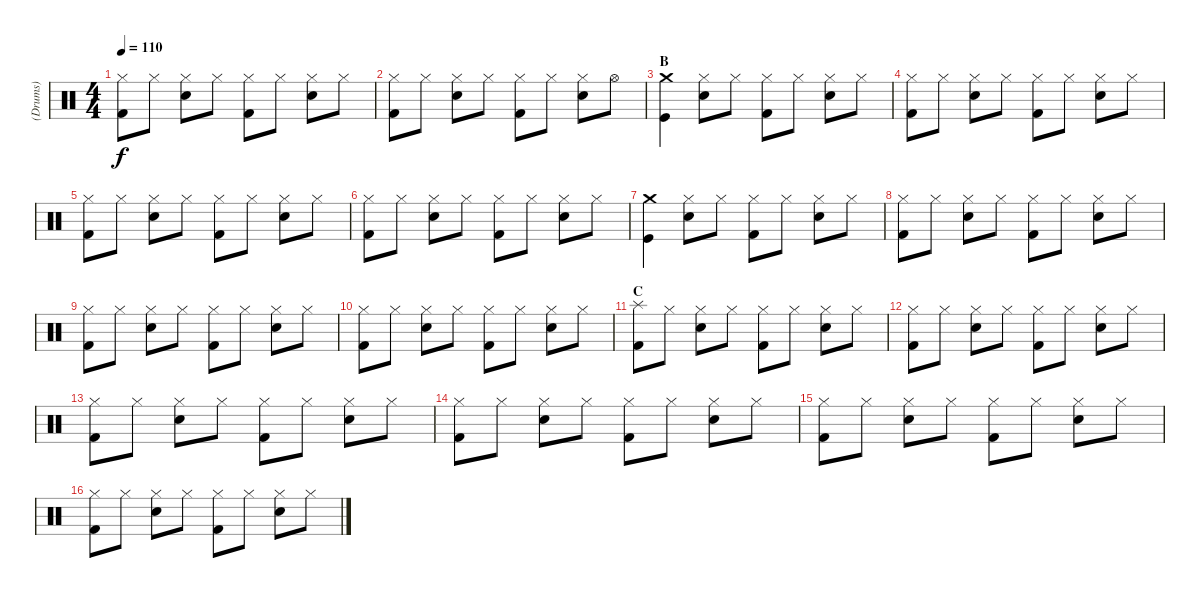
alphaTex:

\track ("(Drums)" "(Drums)") {instrument percussion}
\staff {score}
\articulation defaults
\ts (4 4)
\tempo 110
\clef neutral
\ks c
("Hi-Hat (closed)" "Kick (hit) 2").8{dy f} "Hi-Hat (closed)".8 ("Hi-Hat (closed)" "Electric Snare (hit)").8 "Hi-Hat (closed)".8 ("Hi-Hat (closed)" "Kick (hit) 2").8 "Hi-Hat (closed)".8 ("Hi-Hat (closed)" "Electric Snare (hit)").8 "Hi-Hat (closed)".8 |
("Hi-Hat (closed)" "Kick (hit) 2").8 "Hi-Hat (closed)".8 ("Hi-Hat (closed)" "Electric Snare (hit)").8 "Hi-Hat (closed)".8 ("Hi-Hat (closed)" "Kick (hit) 2").8 "Hi-Hat (closed)".8 ("Hi-Hat (closed)" "Electric Snare (hit)").8 "Hi-Hat (open)".8 |
\section ("" "B")
("Crash medium (hit)" "Kick (hit)").4 ("Hi-Hat (closed)" "Electric Snare (hit)").8 "Hi-Hat (closed)".8 ("Hi-Hat (closed)" "Kick (hit) 2").8 "Hi-Hat (closed)".8 ("Hi-Hat (closed)" "Electric Snare (hit)").8 "Hi-Hat (closed)".8 |
("Hi-Hat (closed)" "Kick (hit) 2").8 "Hi-Hat (closed)".8 ("Hi-Hat (closed)" "Electric Snare (hit)").8 "Hi-Hat (closed)".8 ("Hi-Hat (closed)" "Kick (hit) 2").8 "Hi-Hat (closed)".8 ("Hi-Hat (closed)" "Electric Snare (hit)").8 "Hi-Hat (closed)".8 |
("Hi-Hat (closed)" "Kick (hit) 2").8 "Hi-Hat (closed)".8 ("Hi-Hat (closed)" "Electric Snare (hit)").8 "Hi-Hat (closed)".8 ("Hi-Hat (closed)" "Kick (hit) 2").8 "Hi-Hat (closed)".8 ("Hi-Hat (closed)" "Electric Snare (hit)").8 "Hi-Hat (closed)".8 |
("Hi-Hat (closed)" "Kick (hit) 2").8 "Hi-Hat (closed)".8 ("Hi-Hat (closed)" "Electric Snare (hit)").8 "Hi-Hat (closed)".8 ("Hi-Hat (closed)" "Kick (hit) 2").8 "Hi-Hat (closed)".8 ("Hi-Hat (closed)" "Electric Snare (hit)").8 "Hi-Hat (closed)".8 |
("Crash medium (hit)" "Kick (hit)").4 ("Hi-Hat (closed)" "Electric Snare (hit)").8 "Hi-Hat (closed)".8 ("Hi-Hat (closed)" "Kick (hit) 2").8 "Hi-Hat (closed)".8 ("Hi-Hat (closed)" "Electric Snare (hit)").8 "Hi-Hat (closed)".8 |
("Hi-Hat (closed)" "Kick (hit) 2").8 "Hi-Hat (closed)".8 ("Hi-Hat (closed)" "Electric Snare (hit)").8 "Hi-Hat (closed)".8 ("Hi-Hat (closed)" "Kick (hit) 2").8 "Hi-Hat (closed)".8 ("Hi-Hat (closed)" "Electric Snare (hit)").8 "Hi-Hat (closed)".8 |
("Hi-Hat (closed)" "Kick (hit) 2").8 "Hi-Hat (closed)".8 ("Hi-Hat (closed)" "Electric Snare (hit)").8 "Hi-Hat (closed)".8 ("Hi-Hat (closed)" "Kick (hit) 2").8 "Hi-Hat (closed)".8 ("Hi-Hat (closed)" "Electric Snare (hit)").8 "Hi-Hat (closed)".8 |
("Hi-Hat (closed)" "Kick (hit) 2").8 "Hi-Hat (closed)".8 ("Hi-Hat (closed)" "Electric Snare (hit)").8 "Hi-Hat (closed)".8 ("Hi-Hat (closed)" "Kick (hit) 2").8 "Hi-Hat (closed)".8 ("Hi-Hat (closed)" "Electric Snare (hit)").8 "Hi-Hat (closed)".8 |
\section ("" "C")
("Splash (hit)" "Kick (hit) 2").8 "Hi-Hat (closed)".8 ("Hi-Hat (closed)" "Electric Snare (hit)").8 "Hi-Hat (closed)".8 ("Hi-Hat (closed)" "Kick (hit) 2").8 "Hi-Hat (closed)".8 ("Hi-Hat (closed)" "Electric Snare (hit)").8 "Hi-Hat (closed)".8 |
("Hi-Hat (closed)" "Kick (hit) 2").8 "Hi-Hat (closed)".8 ("Hi-Hat (closed)" "Electric Snare (hit)").8 "Hi-Hat (closed)".8 ("Hi-Hat (closed)" "Kick (hit) 2").8 "Hi-Hat (closed)".8 ("Hi-Hat (closed)" "Electric Snare (hit)").8 "Hi-Hat (closed)".8 |
("Hi-Hat (closed)" "Kick (hit) 2").8 "Hi-Hat (closed)".8 ("Hi-Hat (closed)" "Electric Snare (hit)").8 "Hi-Hat (closed)".8 ("Hi-Hat (closed)" "Kick (hit) 2").8 "Hi-Hat (closed)".8 ("Hi-Hat (closed)" "Electric Snare (hit)").8 "Hi-Hat (closed)".8 |
("Hi-Hat (closed)" "Kick (hit) 2").8 "Hi-Hat (closed)".8 ("Hi-Hat (closed)" "Electric Snare (hit)").8 "Hi-Hat (closed)".8 ("Hi-Hat (closed)" "Kick (hit) 2").8 "Hi-Hat (closed)".8 ("Hi-Hat (closed)" "Electric Snare (hit)").8 "Hi-Hat (closed)".8 |
("Hi-Hat (closed)" "Kick (hit) 2").8 "Hi-Hat (closed)".8 ("Hi-Hat (closed)" "Electric Snare (hit)").8 "Hi-Hat (closed)".8 ("Hi-Hat (closed)" "Kick (hit) 2").8 "Hi-Hat (closed)".8 ("Hi-Hat (closed)" "Electric Snare (hit)").8 "Hi-Hat (closed)".8 |
("Hi-Hat (closed)" "Kick (hit) 2").8 "Hi-Hat (closed)".8 ("Hi-Hat (closed)" "Electric Snare (hit)").8 "Hi-Hat (closed)".8 ("Hi-Hat (closed)" "Kick (hit) 2").8 "Hi-Hat (closed)".8 ("Hi-Hat (closed)" "Electric Snare (hit)").8 "Hi-Hat (closed)".8
